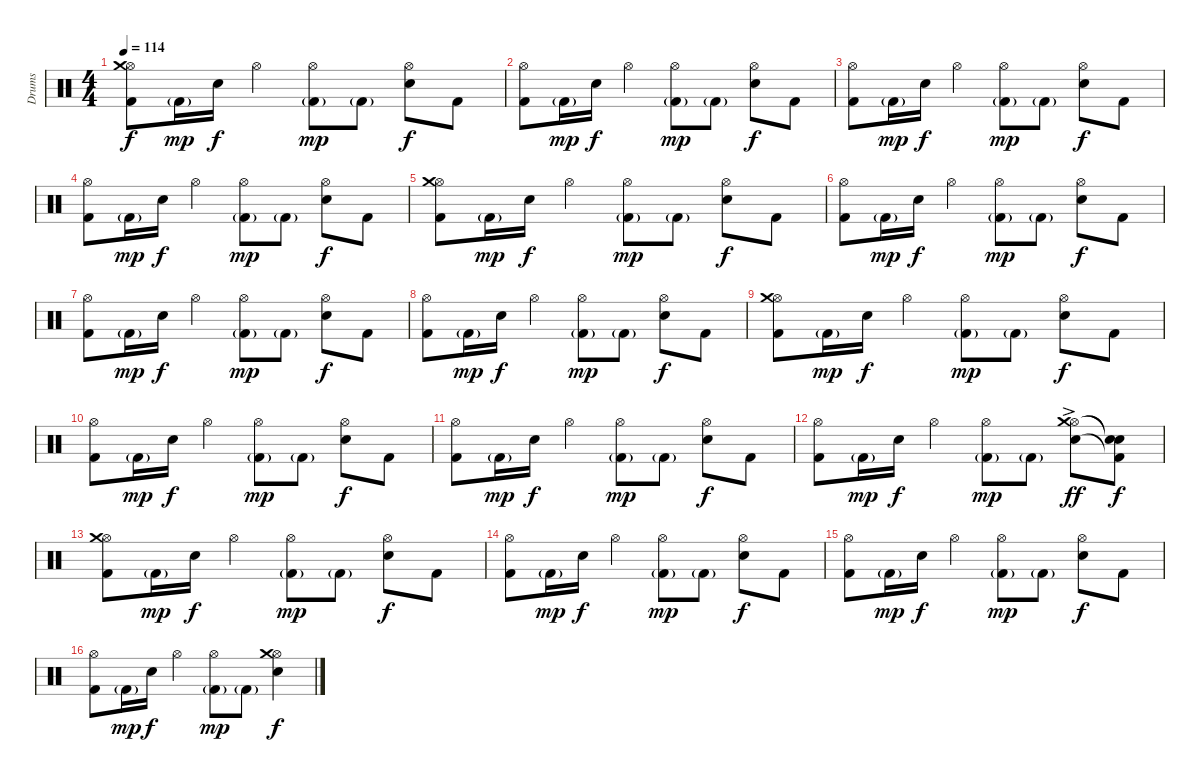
\track ("Drums" "Drums") {instrument percussion}
\staff {score}
\articulation defaults
\ts (4 4)
\tempo 114
\clef neutral
\ks c
("Hi-Hat (open)" "Crash medium (hit)" "Kick (hit) 2").8{dy f volume 14} "Kick (hit) 2"{g}.16{dy mp} "Electric Snare (hit)".16{dy f} "Hi-Hat (open)".4 ("Hi-Hat (open)" "Kick (hit) 2"{g}).8{dy mp} "Kick (hit) 2"{g}.8 ("Hi-Hat (open)" "Electric Snare (hit)").8{dy f} "Kick (hit) 2".8 |
("Hi-Hat (open)" "Kick (hit) 2").8 "Kick (hit) 2"{g}.16{dy mp} "Electric Snare (hit)".16{dy f} "Hi-Hat (open)".4 ("Hi-Hat (open)" "Kick (hit) 2"{g}).8{dy mp} "Kick (hit) 2"{g}.8 ("Hi-Hat (open)" "Electric Snare (hit)").8{dy f} "Kick (hit) 2".8 |
("Hi-Hat (open)" "Kick (hit) 2").8 "Kick (hit) 2"{g}.16{dy mp} "Electric Snare (hit)".16{dy f} "Hi-Hat (open)".4 ("Hi-Hat (open)" "Kick (hit) 2"{g}).8{dy mp} "Kick (hit) 2"{g}.8 ("Hi-Hat (open)" "Electric Snare (hit)").8{dy f} "Kick (hit) 2".8 |
("Hi-Hat (open)" "Kick (hit) 2").8 "Kick (hit) 2"{g}.16{dy mp} "Electric Snare (hit)".16{dy f} "Hi-Hat (open)".4 ("Hi-Hat (open)" "Kick (hit) 2"{g}).8{dy mp} "Kick (hit) 2"{g}.8 ("Hi-Hat (open)" "Electric Snare (hit)").8{dy f} "Kick (hit) 2".8 |
("Hi-Hat (open)" "Crash medium (hit)" "Kick (hit) 2").8 "Kick (hit) 2"{g}.16{dy mp} "Electric Snare (hit)".16{dy f} "Hi-Hat (open)".4 ("Hi-Hat (open)" "Kick (hit) 2"{g}).8{dy mp} "Kick (hit) 2"{g}.8 ("Hi-Hat (open)" "Electric Snare (hit)").8{dy f} "Kick (hit) 2".8 |
("Hi-Hat (open)" "Kick (hit) 2").8 "Kick (hit) 2"{g}.16{dy mp} "Electric Snare (hit)".16{dy f} "Hi-Hat (open)".4 ("Hi-Hat (open)" "Kick (hit) 2"{g}).8{dy mp} "Kick (hit) 2"{g}.8 ("Hi-Hat (open)" "Electric Snare (hit)").8{dy f} "Kick (hit) 2".8 |
("Hi-Hat (open)" "Kick (hit) 2").8 "Kick (hit) 2"{g}.16{dy mp} "Electric Snare (hit)".16{dy f} "Hi-Hat (open)".4 ("Hi-Hat (open)" "Kick (hit) 2"{g}).8{dy mp} "Kick (hit) 2"{g}.8 ("Hi-Hat (open)" "Electric Snare (hit)").8{dy f} "Kick (hit) 2".8 |
("Hi-Hat (open)" "Kick (hit) 2").8 "Kick (hit) 2"{g}.16{dy mp} "Electric Snare (hit)".16{dy f} "Hi-Hat (open)".4 ("Hi-Hat (open)" "Kick (hit) 2"{g}).8{dy mp} "Kick (hit) 2"{g}.8 ("Hi-Hat (open)" "Electric Snare (hit)").8{dy f} "Kick (hit) 2".8 |
("Hi-Hat (open)" "Crash medium (hit)" "Kick (hit) 2").8 "Kick (hit) 2"{g}.16{dy mp} "Electric Snare (hit)".16{dy f} "Hi-Hat (open)".4 ("Hi-Hat (open)" "Kick (hit) 2"{g}).8{dy mp} "Kick (hit) 2"{g}.8 ("Hi-Hat (open)" "Electric Snare (hit)").8{dy f} "Kick (hit) 2".8 |
("Hi-Hat (open)" "Kick (hit) 2").8 "Kick (hit) 2"{g}.16{dy mp} "Electric Snare (hit)".16{dy f} "Hi-Hat (open)".4 ("Hi-Hat (open)" "Kick (hit) 2"{g}).8{dy mp} "Kick (hit) 2"{g}.8 ("Hi-Hat (open)" "Electric Snare (hit)").8{dy f} "Kick (hit) 2".8 |
("Hi-Hat (open)" "Kick (hit) 2").8 "Kick (hit) 2"{g}.16{dy mp} "Electric Snare (hit)".16{dy f} "Hi-Hat (open)".4 ("Hi-Hat (open)" "Kick (hit) 2"{g}).8{dy mp} "Kick (hit) 2"{g}.8 ("Hi-Hat (open)" "Electric Snare (hit)").8{dy f} "Kick (hit) 2".8 |
("Hi-Hat (open)" "Kick (hit) 2").8 "Kick (hit) 2"{g}.16{dy mp} "Electric Snare (hit)".16{dy f} "Hi-Hat (open)".4 ("Hi-Hat (open)" "Kick (hit) 2"{g}).8{dy mp} "Kick (hit) 2"{g}.8 ("Hi-Hat (open)"{ac} "Crash medium (hit)" "Electric Snare (hit)"{ac}).8{dy ff} ("Snare (hit)"{t} "Snare (hit)"{t} "Kick (hit) 2"{t}).8{dy f} |
("Hi-Hat (open)" "Crash medium (hit)" "Kick (hit) 2").8 "Kick (hit) 2"{g}.16{dy mp} "Electric Snare (hit)".16{dy f} "Hi-Hat (open)".4 ("Hi-Hat (open)" "Kick (hit) 2"{g}).8{dy mp} "Kick (hit) 2"{g}.8 ("Hi-Hat (open)" "Electric Snare (hit)").8{dy f} "Kick (hit) 2".8 |
("Hi-Hat (open)" "Kick (hit) 2").8 "Kick (hit) 2"{g}.16{dy mp} "Electric Snare (hit)".16{dy f} "Hi-Hat (open)".4 ("Hi-Hat (open)" "Kick (hit) 2"{g}).8{dy mp} "Kick (hit) 2"{g}.8 ("Hi-Hat (open)" "Electric Snare (hit)").8{dy f} "Kick (hit) 2".8 |
("Hi-Hat (open)" "Kick (hit) 2").8 "Kick (hit) 2"{g}.16{dy mp} "Electric Snare (hit)".16{dy f} "Hi-Hat (open)".4 ("Hi-Hat (open)" "Kick (hit) 2"{g}).8{dy mp} "Kick (hit) 2"{g}.8 ("Hi-Hat (open)" "Electric Snare (hit)").8{dy f} "Kick (hit) 2".8 |
("Hi-Hat (open)" "Kick (hit) 2").8 "Kick (hit) 2"{g}.16{dy mp} "Electric Snare (hit)".16{dy f} "Hi-Hat (open)".4 ("Hi-Hat (open)" "Kick (hit) 2"{g}).8{dy mp} "Kick (hit) 2"{g}.8 ("Hi-Hat (open)" "Crash medium (hit)" "Electric Snare (hit)").4{dy f}
